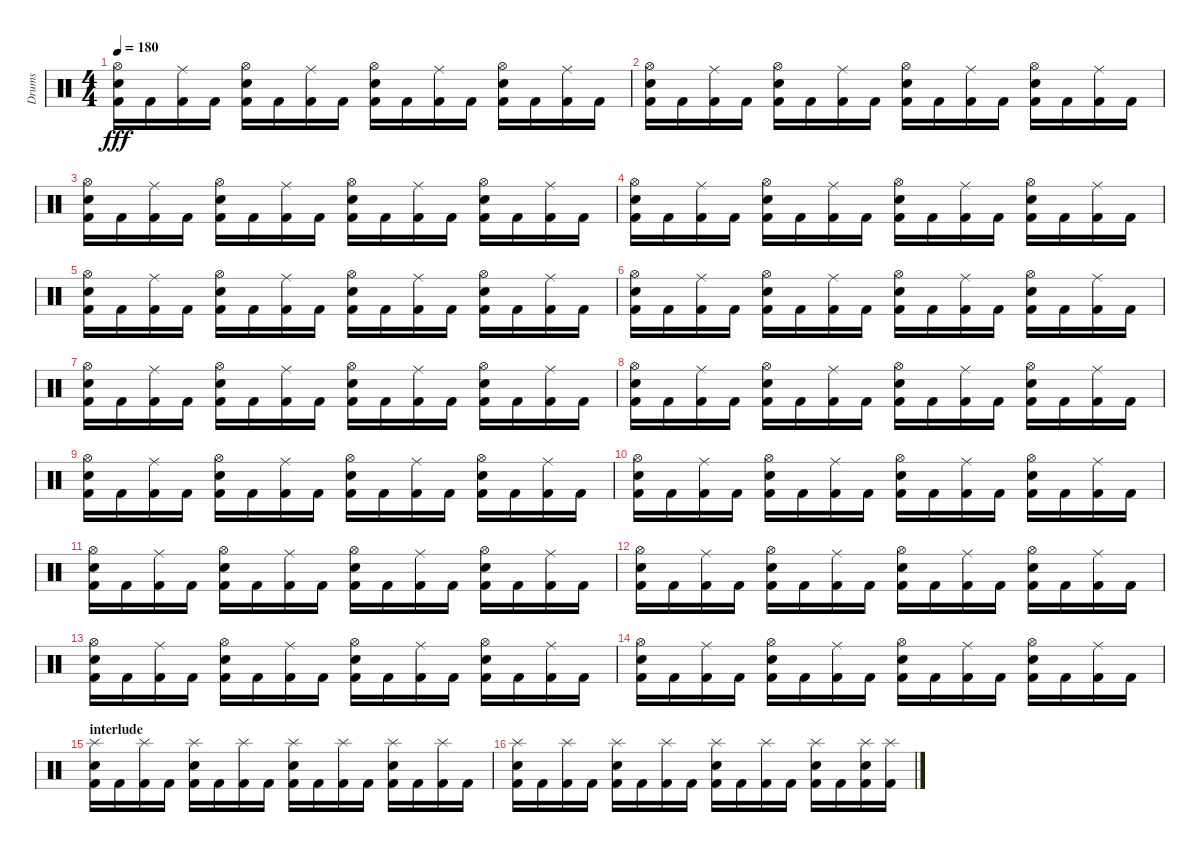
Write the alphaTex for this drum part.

\track ("Drums" "Drums") {instrument percussion}
\staff {score}
\articulation defaults
\ts (4 4)
\tempo 180
\clef neutral
\ks c
("Electric Snare (hit)" "Hi-Hat (open)" "Kick (hit) 2").16{dy fff} "Kick (hit) 2".16 ("Ride (middle)" "Kick (hit) 2").16 "Kick (hit) 2".16 ("Electric Snare (hit)" "Hi-Hat (open)" "Kick (hit) 2").16 "Kick (hit) 2".16 ("Ride (middle)" "Kick (hit) 2").16 "Kick (hit) 2".16 ("Electric Snare (hit)" "Hi-Hat (open)" "Kick (hit) 2").16 "Kick (hit) 2".16 ("Ride (middle)" "Kick (hit) 2").16 "Kick (hit) 2".16 ("Electric Snare (hit)" "Hi-Hat (open)" "Kick (hit) 2").16 "Kick (hit) 2".16 ("Ride (middle)" "Kick (hit) 2").16 "Kick (hit) 2".16 |
("Electric Snare (hit)" "Hi-Hat (open)" "Kick (hit) 2").16 "Kick (hit) 2".16 ("Ride (middle)" "Kick (hit) 2").16 "Kick (hit) 2".16 ("Electric Snare (hit)" "Hi-Hat (open)" "Kick (hit) 2").16 "Kick (hit) 2".16 ("Ride (middle)" "Kick (hit) 2").16 "Kick (hit) 2".16 ("Electric Snare (hit)" "Hi-Hat (open)" "Kick (hit) 2").16 "Kick (hit) 2".16 ("Ride (middle)" "Kick (hit) 2").16 "Kick (hit) 2".16 ("Electric Snare (hit)" "Hi-Hat (open)" "Kick (hit) 2").16 "Kick (hit) 2".16 ("Ride (middle)" "Kick (hit) 2").16 "Kick (hit) 2".16 |
("Electric Snare (hit)" "Hi-Hat (open)" "Kick (hit) 2").16 "Kick (hit) 2".16 ("Ride (middle)" "Kick (hit) 2").16 "Kick (hit) 2".16 ("Electric Snare (hit)" "Hi-Hat (open)" "Kick (hit) 2").16 "Kick (hit) 2".16 ("Ride (middle)" "Kick (hit) 2").16 "Kick (hit) 2".16 ("Electric Snare (hit)" "Hi-Hat (open)" "Kick (hit) 2").16 "Kick (hit) 2".16 ("Ride (middle)" "Kick (hit) 2").16 "Kick (hit) 2".16 ("Electric Snare (hit)" "Hi-Hat (open)" "Kick (hit) 2").16 "Kick (hit) 2".16 ("Ride (middle)" "Kick (hit) 2").16 "Kick (hit) 2".16 |
("Electric Snare (hit)" "Hi-Hat (open)" "Kick (hit) 2").16 "Kick (hit) 2".16 ("Ride (middle)" "Kick (hit) 2").16 "Kick (hit) 2".16 ("Electric Snare (hit)" "Hi-Hat (open)" "Kick (hit) 2").16 "Kick (hit) 2".16 ("Ride (middle)" "Kick (hit) 2").16 "Kick (hit) 2".16 ("Electric Snare (hit)" "Hi-Hat (open)" "Kick (hit) 2").16 "Kick (hit) 2".16 ("Ride (middle)" "Kick (hit) 2").16 "Kick (hit) 2".16 ("Electric Snare (hit)" "Hi-Hat (open)" "Kick (hit) 2").16 "Kick (hit) 2".16 ("Ride (middle)" "Kick (hit) 2").16 "Kick (hit) 2".16 |
("Electric Snare (hit)" "Hi-Hat (open)" "Kick (hit) 2").16 "Kick (hit) 2".16 ("Ride (middle)" "Kick (hit) 2").16 "Kick (hit) 2".16 ("Electric Snare (hit)" "Hi-Hat (open)" "Kick (hit) 2").16 "Kick (hit) 2".16 ("Ride (middle)" "Kick (hit) 2").16 "Kick (hit) 2".16 ("Electric Snare (hit)" "Hi-Hat (open)" "Kick (hit) 2").16 "Kick (hit) 2".16 ("Ride (middle)" "Kick (hit) 2").16 "Kick (hit) 2".16 ("Electric Snare (hit)" "Hi-Hat (open)" "Kick (hit) 2").16 "Kick (hit) 2".16 ("Ride (middle)" "Kick (hit) 2").16 "Kick (hit) 2".16 |
("Electric Snare (hit)" "Hi-Hat (open)" "Kick (hit) 2").16 "Kick (hit) 2".16 ("Ride (middle)" "Kick (hit) 2").16 "Kick (hit) 2".16 ("Electric Snare (hit)" "Hi-Hat (open)" "Kick (hit) 2").16 "Kick (hit) 2".16 ("Ride (middle)" "Kick (hit) 2").16 "Kick (hit) 2".16 ("Electric Snare (hit)" "Hi-Hat (open)" "Kick (hit) 2").16 "Kick (hit) 2".16 ("Ride (middle)" "Kick (hit) 2").16 "Kick (hit) 2".16 ("Electric Snare (hit)" "Hi-Hat (open)" "Kick (hit) 2").16 "Kick (hit) 2".16 ("Ride (middle)" "Kick (hit) 2").16 "Kick (hit) 2".16 |
("Electric Snare (hit)" "Hi-Hat (open)" "Kick (hit) 2").16 "Kick (hit) 2".16 ("Ride (middle)" "Kick (hit) 2").16 "Kick (hit) 2".16 ("Electric Snare (hit)" "Hi-Hat (open)" "Kick (hit) 2").16 "Kick (hit) 2".16 ("Ride (middle)" "Kick (hit) 2").16 "Kick (hit) 2".16 ("Electric Snare (hit)" "Hi-Hat (open)" "Kick (hit) 2").16 "Kick (hit) 2".16 ("Ride (middle)" "Kick (hit) 2").16 "Kick (hit) 2".16 ("Electric Snare (hit)" "Hi-Hat (open)" "Kick (hit) 2").16 "Kick (hit) 2".16 ("Ride (middle)" "Kick (hit) 2").16 "Kick (hit) 2".16 |
("Electric Snare (hit)" "Hi-Hat (open)" "Kick (hit) 2").16 "Kick (hit) 2".16 ("Ride (middle)" "Kick (hit) 2").16 "Kick (hit) 2".16 ("Electric Snare (hit)" "Hi-Hat (open)" "Kick (hit) 2").16 "Kick (hit) 2".16 ("Ride (middle)" "Kick (hit) 2").16 "Kick (hit) 2".16 ("Electric Snare (hit)" "Hi-Hat (open)" "Kick (hit) 2").16 "Kick (hit) 2".16 ("Ride (middle)" "Kick (hit) 2").16 "Kick (hit) 2".16 ("Electric Snare (hit)" "Hi-Hat (open)" "Kick (hit) 2").16 "Kick (hit) 2".16 ("Ride (middle)" "Kick (hit) 2").16 "Kick (hit) 2".16 |
("Electric Snare (hit)" "Hi-Hat (open)" "Kick (hit) 2").16 "Kick (hit) 2".16 ("Ride (middle)" "Kick (hit) 2").16 "Kick (hit) 2".16 ("Electric Snare (hit)" "Hi-Hat (open)" "Kick (hit) 2").16 "Kick (hit) 2".16 ("Ride (middle)" "Kick (hit) 2").16 "Kick (hit) 2".16 ("Electric Snare (hit)" "Hi-Hat (open)" "Kick (hit) 2").16 "Kick (hit) 2".16 ("Ride (middle)" "Kick (hit) 2").16 "Kick (hit) 2".16 ("Electric Snare (hit)" "Hi-Hat (open)" "Kick (hit) 2").16 "Kick (hit) 2".16 ("Ride (middle)" "Kick (hit) 2").16 "Kick (hit) 2".16 |
("Electric Snare (hit)" "Hi-Hat (open)" "Kick (hit) 2").16 "Kick (hit) 2".16 ("Ride (middle)" "Kick (hit) 2").16 "Kick (hit) 2".16 ("Electric Snare (hit)" "Hi-Hat (open)" "Kick (hit) 2").16 "Kick (hit) 2".16 ("Ride (middle)" "Kick (hit) 2").16 "Kick (hit) 2".16 ("Electric Snare (hit)" "Hi-Hat (open)" "Kick (hit) 2").16 "Kick (hit) 2".16 ("Ride (middle)" "Kick (hit) 2").16 "Kick (hit) 2".16 ("Electric Snare (hit)" "Hi-Hat (open)" "Kick (hit) 2").16 "Kick (hit) 2".16 ("Ride (middle)" "Kick (hit) 2").16 "Kick (hit) 2".16 |
("Electric Snare (hit)" "Hi-Hat (open)" "Kick (hit) 2").16 "Kick (hit) 2".16 ("Ride (middle)" "Kick (hit) 2").16 "Kick (hit) 2".16 ("Electric Snare (hit)" "Hi-Hat (open)" "Kick (hit) 2").16 "Kick (hit) 2".16 ("Ride (middle)" "Kick (hit) 2").16 "Kick (hit) 2".16 ("Electric Snare (hit)" "Hi-Hat (open)" "Kick (hit) 2").16 "Kick (hit) 2".16 ("Ride (middle)" "Kick (hit) 2").16 "Kick (hit) 2".16 ("Electric Snare (hit)" "Hi-Hat (open)" "Kick (hit) 2").16 "Kick (hit) 2".16 ("Ride (middle)" "Kick (hit) 2").16 "Kick (hit) 2".16 |
("Electric Snare (hit)" "Hi-Hat (open)" "Kick (hit) 2").16 "Kick (hit) 2".16 ("Ride (middle)" "Kick (hit) 2").16 "Kick (hit) 2".16 ("Electric Snare (hit)" "Hi-Hat (open)" "Kick (hit) 2").16 "Kick (hit) 2".16 ("Ride (middle)" "Kick (hit) 2").16 "Kick (hit) 2".16 ("Electric Snare (hit)" "Hi-Hat (open)" "Kick (hit) 2").16 "Kick (hit) 2".16 ("Ride (middle)" "Kick (hit) 2").16 "Kick (hit) 2".16 ("Electric Snare (hit)" "Hi-Hat (open)" "Kick (hit) 2").16 "Kick (hit) 2".16 ("Ride (middle)" "Kick (hit) 2").16 "Kick (hit) 2".16 |
("Electric Snare (hit)" "Hi-Hat (open)" "Kick (hit) 2").16 "Kick (hit) 2".16 ("Ride (middle)" "Kick (hit) 2").16 "Kick (hit) 2".16 ("Electric Snare (hit)" "Hi-Hat (open)" "Kick (hit) 2").16 "Kick (hit) 2".16 ("Ride (middle)" "Kick (hit) 2").16 "Kick (hit) 2".16 ("Electric Snare (hit)" "Hi-Hat (open)" "Kick (hit) 2").16 "Kick (hit) 2".16 ("Ride (middle)" "Kick (hit) 2").16 "Kick (hit) 2".16 ("Electric Snare (hit)" "Hi-Hat (open)" "Kick (hit) 2").16 "Kick (hit) 2".16 ("Ride (middle)" "Kick (hit) 2").16 "Kick (hit) 2".16 |
("Electric Snare (hit)" "Hi-Hat (open)" "Kick (hit) 2").16 "Kick (hit) 2".16 ("Ride (middle)" "Kick (hit) 2").16 "Kick (hit) 2".16 ("Electric Snare (hit)" "Hi-Hat (open)" "Kick (hit) 2").16 "Kick (hit) 2".16 ("Ride (middle)" "Kick (hit) 2").16 "Kick (hit) 2".16 ("Electric Snare (hit)" "Hi-Hat (open)" "Kick (hit) 2").16 "Kick (hit) 2".16 ("Ride (middle)" "Kick (hit) 2").16 "Kick (hit) 2".16 ("Electric Snare (hit)" "Hi-Hat (open)" "Kick (hit) 2").16 "Kick (hit) 2".16 ("Ride (middle)" "Kick (hit) 2").16 "Kick (hit) 2".16 |
\section ("" "interlude")
("Kick (hit) 2" "Electric Snare (hit)" "Splash (hit)").16 "Kick (hit) 2".16 ("Kick (hit) 2" "Splash (hit)").16 "Kick (hit) 2".16 ("Kick (hit) 2" "Electric Snare (hit)" "Splash (hit)").16 "Kick (hit) 2".16 ("Kick (hit) 2" "Splash (hit)").16 "Kick (hit) 2".16 ("Kick (hit) 2" "Electric Snare (hit)" "Splash (hit)").16 "Kick (hit) 2".16 ("Kick (hit) 2" "Splash (hit)").16 "Kick (hit) 2".16 ("Kick (hit) 2" "Electric Snare (hit)" "Splash (hit)").16 "Kick (hit) 2".16 ("Kick (hit) 2" "Splash (hit)").16 "Kick (hit) 2".16 |
("Kick (hit) 2" "Electric Snare (hit)" "Splash (hit)").16 "Kick (hit) 2".16 ("Kick (hit) 2" "Splash (hit)").16 "Kick (hit) 2".16 ("Kick (hit) 2" "Electric Snare (hit)" "Splash (hit)").16 "Kick (hit) 2".16 ("Kick (hit) 2" "Splash (hit)").16 "Kick (hit) 2".16 ("Kick (hit) 2" "Electric Snare (hit)" "Splash (hit)").16 "Kick (hit) 2".16 ("Kick (hit) 2" "Splash (hit)").16 "Kick (hit) 2".16 ("Kick (hit) 2" "Electric Snare (hit)" "Splash (hit)").16 "Kick (hit) 2".16 ("Kick (hit) 2" "Electric Snare (hit)" "Splash (hit)").16 ("Kick (hit) 2" "Splash (hit)").16
